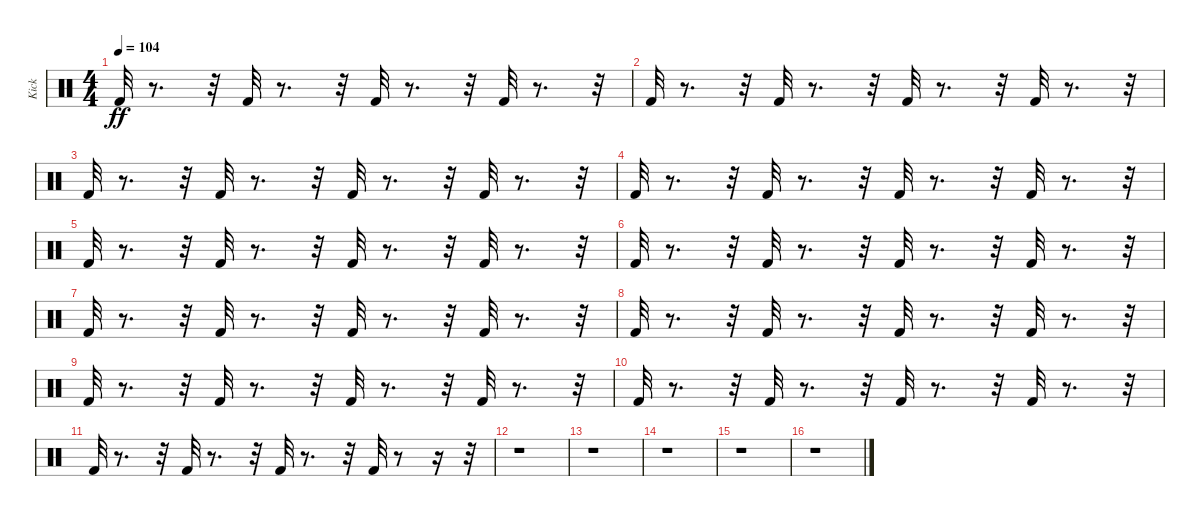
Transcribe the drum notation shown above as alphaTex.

\track ("Kick" "Kick") {instrument percussion}
\staff {score}
\articulation defaults
\ts (4 4)
\tempo 104
\clef neutral
\ks c "Kick (hit) 2".32{dy ff}
r.8{d} r.32 "Kick (hit) 2".32 r.8{d} r.32 "Kick (hit) 2".32 r.8{d} r.32 "Kick (hit) 2".32 r.8{d} r.32 |
"Kick (hit) 2".32 r.8{d} r.32 "Kick (hit) 2".32 r.8{d} r.32 "Kick (hit) 2".32 r.8{d} r.32 "Kick (hit) 2".32 r.8{d} r.32 |
"Kick (hit) 2".32 r.8{d} r.32 "Kick (hit) 2".32 r.8{d} r.32 "Kick (hit) 2".32 r.8{d} r.32 "Kick (hit) 2".32 r.8{d} r.32 |
"Kick (hit) 2".32 r.8{d} r.32 "Kick (hit) 2".32 r.8{d} r.32 "Kick (hit) 2".32 r.8{d} r.32 "Kick (hit) 2".32 r.8{d} r.32 |
"Kick (hit) 2".32 r.8{d} r.32 "Kick (hit) 2".32 r.8{d} r.32 "Kick (hit) 2".32 r.8{d} r.32 "Kick (hit) 2".32 r.8{d} r.32 |
"Kick (hit) 2".32 r.8{d} r.32 "Kick (hit) 2".32 r.8{d} r.32 "Kick (hit) 2".32 r.8{d} r.32 "Kick (hit) 2".32 r.8{d} r.32 |
"Kick (hit) 2".32 r.8{d} r.32 "Kick (hit) 2".32 r.8{d} r.32 "Kick (hit) 2".32 r.8{d} r.32 "Kick (hit) 2".32 r.8{d} r.32 |
"Kick (hit) 2".32 r.8{d} r.32 "Kick (hit) 2".32 r.8{d} r.32 "Kick (hit) 2".32 r.8{d} r.32 "Kick (hit) 2".32 r.8{d} r.32 |
"Kick (hit) 2".32 r.8{d} r.32 "Kick (hit) 2".32 r.8{d} r.32 "Kick (hit) 2".32 r.8{d} r.32 "Kick (hit) 2".32 r.8{d} r.32 |
"Kick (hit) 2".32 r.8{d} r.32 "Kick (hit) 2".32 r.8{d} r.32 "Kick (hit) 2".32 r.8{d} r.32 "Kick (hit) 2".32 r.8{d} r.32 |
"Kick (hit) 2".32 r.8{d} r.32 "Kick (hit) 2".32 r.8{d} r.32 "Kick (hit) 2".32 r.8{d} r.32 "Kick (hit) 2".32 r.8 r.16 r.32 |
r.1 |
r.1 |
r.1 |
r.1 |
r.1
